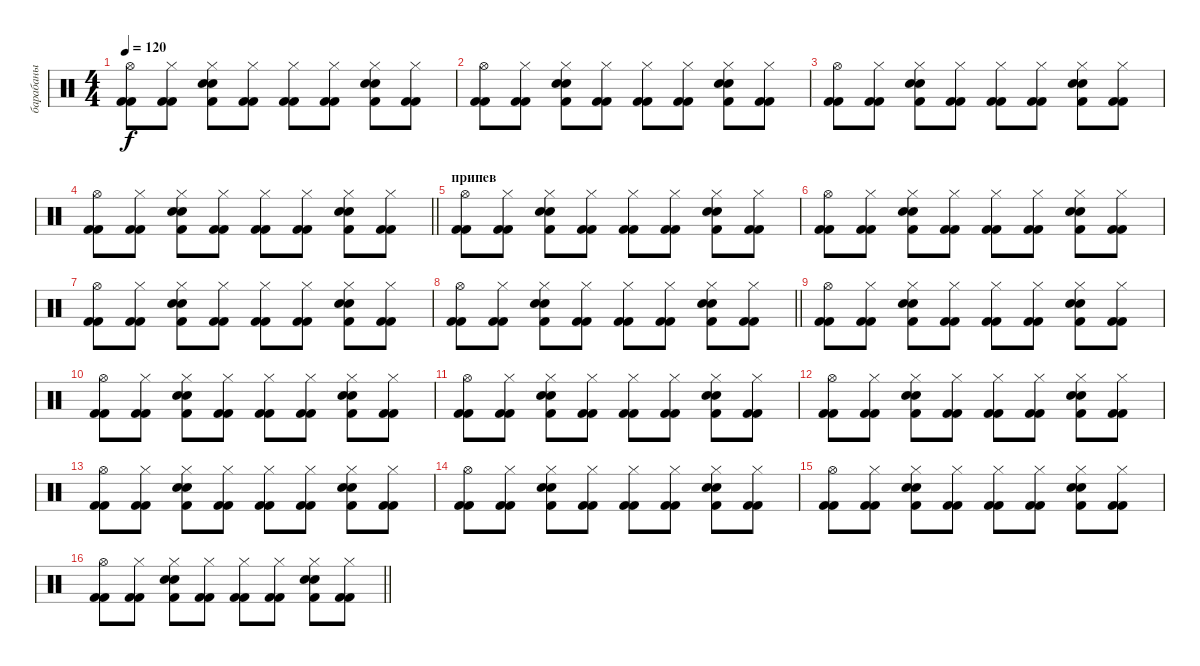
\track ("барабаны" "барабаны") {instrument percussion}
\staff {score}
\articulation defaults
\ts (4 4)
\tempo 120
\clef neutral
\ks c
("Hi-Hat (open)" "Kick (hit) 2" "Kick (hit) 2").8{dy f} ("Hi-Hat (closed)" "Kick (hit) 2" "Kick (hit) 2").8 ("Hi-Hat (closed)" "Snare (hit) 2" "Kick (hit) 2" "Electric Snare (hit)").8 ("Hi-Hat (closed)" "Kick (hit) 2" "Kick (hit) 2").8 ("Hi-Hat (closed)" "Kick (hit) 2" "Kick (hit) 2").8 ("Hi-Hat (closed)" "Kick (hit) 2" "Kick (hit) 2").8 ("Hi-Hat (closed)" "Snare (hit) 2" "Kick (hit) 2" "Electric Snare (hit)").8 ("Hi-Hat (closed)" "Kick (hit) 2" "Kick (hit) 2").8 |
("Hi-Hat (open)" "Kick (hit) 2" "Kick (hit) 2").8 ("Hi-Hat (closed)" "Kick (hit) 2" "Kick (hit) 2").8 ("Hi-Hat (closed)" "Snare (hit) 2" "Kick (hit) 2" "Electric Snare (hit)").8 ("Hi-Hat (closed)" "Kick (hit) 2" "Kick (hit) 2").8 ("Hi-Hat (closed)" "Kick (hit) 2" "Kick (hit) 2").8 ("Hi-Hat (closed)" "Kick (hit) 2" "Kick (hit) 2").8 ("Hi-Hat (closed)" "Snare (hit) 2" "Kick (hit) 2" "Electric Snare (hit)").8 ("Hi-Hat (closed)" "Kick (hit) 2" "Kick (hit) 2").8 |
("Hi-Hat (open)" "Kick (hit) 2" "Kick (hit) 2").8 ("Hi-Hat (closed)" "Kick (hit) 2" "Kick (hit) 2").8 ("Hi-Hat (closed)" "Snare (hit) 2" "Kick (hit) 2" "Electric Snare (hit)").8 ("Hi-Hat (closed)" "Kick (hit) 2" "Kick (hit) 2").8 ("Hi-Hat (closed)" "Kick (hit) 2" "Kick (hit) 2").8 ("Hi-Hat (closed)" "Kick (hit) 2" "Kick (hit) 2").8 ("Hi-Hat (closed)" "Snare (hit) 2" "Kick (hit) 2" "Electric Snare (hit)").8 ("Hi-Hat (closed)" "Kick (hit) 2" "Kick (hit) 2").8 |
\barLineRight lightlight
("Hi-Hat (open)" "Kick (hit) 2" "Kick (hit) 2").8 ("Hi-Hat (closed)" "Kick (hit) 2" "Kick (hit) 2").8 ("Hi-Hat (closed)" "Snare (hit) 2" "Kick (hit) 2" "Electric Snare (hit)").8 ("Hi-Hat (closed)" "Kick (hit) 2" "Kick (hit) 2").8 ("Hi-Hat (closed)" "Kick (hit) 2" "Kick (hit) 2").8 ("Hi-Hat (closed)" "Kick (hit) 2" "Kick (hit) 2").8 ("Hi-Hat (closed)" "Snare (hit) 2" "Kick (hit) 2" "Electric Snare (hit)").8 ("Hi-Hat (closed)" "Kick (hit) 2" "Kick (hit) 2").8 |
\section ("" "припев")
("Hi-Hat (open)" "Kick (hit) 2" "Kick (hit) 2").8 ("Hi-Hat (closed)" "Kick (hit) 2" "Kick (hit) 2").8 ("Hi-Hat (closed)" "Snare (hit) 2" "Kick (hit) 2" "Electric Snare (hit)").8 ("Hi-Hat (closed)" "Kick (hit) 2" "Kick (hit) 2").8 ("Hi-Hat (closed)" "Kick (hit) 2" "Kick (hit) 2").8 ("Hi-Hat (closed)" "Kick (hit) 2" "Kick (hit) 2").8 ("Hi-Hat (closed)" "Snare (hit) 2" "Kick (hit) 2" "Electric Snare (hit)").8 ("Hi-Hat (closed)" "Kick (hit) 2" "Kick (hit) 2").8 |
("Hi-Hat (open)" "Kick (hit) 2" "Kick (hit) 2").8 ("Hi-Hat (closed)" "Kick (hit) 2" "Kick (hit) 2").8 ("Hi-Hat (closed)" "Snare (hit) 2" "Kick (hit) 2" "Electric Snare (hit)").8 ("Hi-Hat (closed)" "Kick (hit) 2" "Kick (hit) 2").8 ("Hi-Hat (closed)" "Kick (hit) 2" "Kick (hit) 2").8 ("Hi-Hat (closed)" "Kick (hit) 2" "Kick (hit) 2").8 ("Hi-Hat (closed)" "Snare (hit) 2" "Kick (hit) 2" "Electric Snare (hit)").8 ("Hi-Hat (closed)" "Kick (hit) 2" "Kick (hit) 2").8 |
("Hi-Hat (open)" "Kick (hit) 2" "Kick (hit) 2").8 ("Hi-Hat (closed)" "Kick (hit) 2" "Kick (hit) 2").8 ("Hi-Hat (closed)" "Snare (hit) 2" "Kick (hit) 2" "Electric Snare (hit)").8 ("Hi-Hat (closed)" "Kick (hit) 2" "Kick (hit) 2").8 ("Hi-Hat (closed)" "Kick (hit) 2" "Kick (hit) 2").8 ("Hi-Hat (closed)" "Kick (hit) 2" "Kick (hit) 2").8 ("Hi-Hat (closed)" "Snare (hit) 2" "Kick (hit) 2" "Electric Snare (hit)").8 ("Hi-Hat (closed)" "Kick (hit) 2" "Kick (hit) 2").8 |
\barLineRight lightlight
("Hi-Hat (open)" "Kick (hit) 2" "Kick (hit) 2").8 ("Hi-Hat (closed)" "Kick (hit) 2" "Kick (hit) 2").8 ("Hi-Hat (closed)" "Snare (hit) 2" "Kick (hit) 2" "Electric Snare (hit)").8 ("Hi-Hat (closed)" "Kick (hit) 2" "Kick (hit) 2").8 ("Hi-Hat (closed)" "Kick (hit) 2" "Kick (hit) 2").8 ("Hi-Hat (closed)" "Kick (hit) 2" "Kick (hit) 2").8 ("Hi-Hat (closed)" "Snare (hit) 2" "Kick (hit) 2" "Electric Snare (hit)").8 ("Hi-Hat (closed)" "Kick (hit) 2" "Kick (hit) 2").8 |
("Hi-Hat (open)" "Kick (hit) 2" "Kick (hit) 2").8 ("Hi-Hat (closed)" "Kick (hit) 2" "Kick (hit) 2").8 ("Hi-Hat (closed)" "Snare (hit) 2" "Kick (hit) 2" "Electric Snare (hit)").8 ("Hi-Hat (closed)" "Kick (hit) 2" "Kick (hit) 2").8 ("Hi-Hat (closed)" "Kick (hit) 2" "Kick (hit) 2").8 ("Hi-Hat (closed)" "Kick (hit) 2" "Kick (hit) 2").8 ("Hi-Hat (closed)" "Snare (hit) 2" "Kick (hit) 2" "Electric Snare (hit)").8 ("Hi-Hat (closed)" "Kick (hit) 2" "Kick (hit) 2").8 |
("Hi-Hat (open)" "Kick (hit) 2" "Kick (hit) 2").8 ("Hi-Hat (closed)" "Kick (hit) 2" "Kick (hit) 2").8 ("Hi-Hat (closed)" "Snare (hit) 2" "Kick (hit) 2" "Electric Snare (hit)").8 ("Hi-Hat (closed)" "Kick (hit) 2" "Kick (hit) 2").8 ("Hi-Hat (closed)" "Kick (hit) 2" "Kick (hit) 2").8 ("Hi-Hat (closed)" "Kick (hit) 2" "Kick (hit) 2").8 ("Hi-Hat (closed)" "Snare (hit) 2" "Kick (hit) 2" "Electric Snare (hit)").8 ("Hi-Hat (closed)" "Kick (hit) 2" "Kick (hit) 2").8 |
("Hi-Hat (open)" "Kick (hit) 2" "Kick (hit) 2").8 ("Hi-Hat (closed)" "Kick (hit) 2" "Kick (hit) 2").8 ("Hi-Hat (closed)" "Snare (hit) 2" "Kick (hit) 2" "Electric Snare (hit)").8 ("Hi-Hat (closed)" "Kick (hit) 2" "Kick (hit) 2").8 ("Hi-Hat (closed)" "Kick (hit) 2" "Kick (hit) 2").8 ("Hi-Hat (closed)" "Kick (hit) 2" "Kick (hit) 2").8 ("Hi-Hat (closed)" "Snare (hit) 2" "Kick (hit) 2" "Electric Snare (hit)").8 ("Hi-Hat (closed)" "Kick (hit) 2" "Kick (hit) 2").8 |
("Hi-Hat (open)" "Kick (hit) 2" "Kick (hit) 2").8 ("Hi-Hat (closed)" "Kick (hit) 2" "Kick (hit) 2").8 ("Hi-Hat (closed)" "Snare (hit) 2" "Kick (hit) 2" "Electric Snare (hit)").8 ("Hi-Hat (closed)" "Kick (hit) 2" "Kick (hit) 2").8 ("Hi-Hat (closed)" "Kick (hit) 2" "Kick (hit) 2").8 ("Hi-Hat (closed)" "Kick (hit) 2" "Kick (hit) 2").8 ("Hi-Hat (closed)" "Snare (hit) 2" "Kick (hit) 2" "Electric Snare (hit)").8 ("Hi-Hat (closed)" "Kick (hit) 2" "Kick (hit) 2").8 |
("Hi-Hat (open)" "Kick (hit) 2" "Kick (hit) 2").8 ("Hi-Hat (closed)" "Kick (hit) 2" "Kick (hit) 2").8 ("Hi-Hat (closed)" "Snare (hit) 2" "Kick (hit) 2" "Electric Snare (hit)").8 ("Hi-Hat (closed)" "Kick (hit) 2" "Kick (hit) 2").8 ("Hi-Hat (closed)" "Kick (hit) 2" "Kick (hit) 2").8 ("Hi-Hat (closed)" "Kick (hit) 2" "Kick (hit) 2").8 ("Hi-Hat (closed)" "Snare (hit) 2" "Kick (hit) 2" "Electric Snare (hit)").8 ("Hi-Hat (closed)" "Kick (hit) 2" "Kick (hit) 2").8 |
("Hi-Hat (open)" "Kick (hit) 2" "Kick (hit) 2").8 ("Hi-Hat (closed)" "Kick (hit) 2" "Kick (hit) 2").8 ("Hi-Hat (closed)" "Snare (hit) 2" "Kick (hit) 2" "Electric Snare (hit)").8 ("Hi-Hat (closed)" "Kick (hit) 2" "Kick (hit) 2").8 ("Hi-Hat (closed)" "Kick (hit) 2" "Kick (hit) 2").8 ("Hi-Hat (closed)" "Kick (hit) 2" "Kick (hit) 2").8 ("Hi-Hat (closed)" "Snare (hit) 2" "Kick (hit) 2" "Electric Snare (hit)").8 ("Hi-Hat (closed)" "Kick (hit) 2" "Kick (hit) 2").8 |
("Hi-Hat (open)" "Kick (hit) 2" "Kick (hit) 2").8 ("Hi-Hat (closed)" "Kick (hit) 2" "Kick (hit) 2").8 ("Hi-Hat (closed)" "Snare (hit) 2" "Kick (hit) 2" "Electric Snare (hit)").8 ("Hi-Hat (closed)" "Kick (hit) 2" "Kick (hit) 2").8 ("Hi-Hat (closed)" "Kick (hit) 2" "Kick (hit) 2").8 ("Hi-Hat (closed)" "Kick (hit) 2" "Kick (hit) 2").8 ("Hi-Hat (closed)" "Snare (hit) 2" "Kick (hit) 2" "Electric Snare (hit)").8 ("Hi-Hat (closed)" "Kick (hit) 2" "Kick (hit) 2").8 |
\barLineRight lightlight
("Hi-Hat (open)" "Kick (hit) 2" "Kick (hit) 2").8 ("Hi-Hat (closed)" "Kick (hit) 2" "Kick (hit) 2").8 ("Hi-Hat (closed)" "Snare (hit) 2" "Kick (hit) 2" "Electric Snare (hit)").8 ("Hi-Hat (closed)" "Kick (hit) 2" "Kick (hit) 2").8 ("Hi-Hat (closed)" "Kick (hit) 2" "Kick (hit) 2").8 ("Hi-Hat (closed)" "Kick (hit) 2" "Kick (hit) 2").8 ("Hi-Hat (closed)" "Snare (hit) 2" "Kick (hit) 2" "Electric Snare (hit)").8 ("Hi-Hat (closed)" "Kick (hit) 2" "Kick (hit) 2").8
